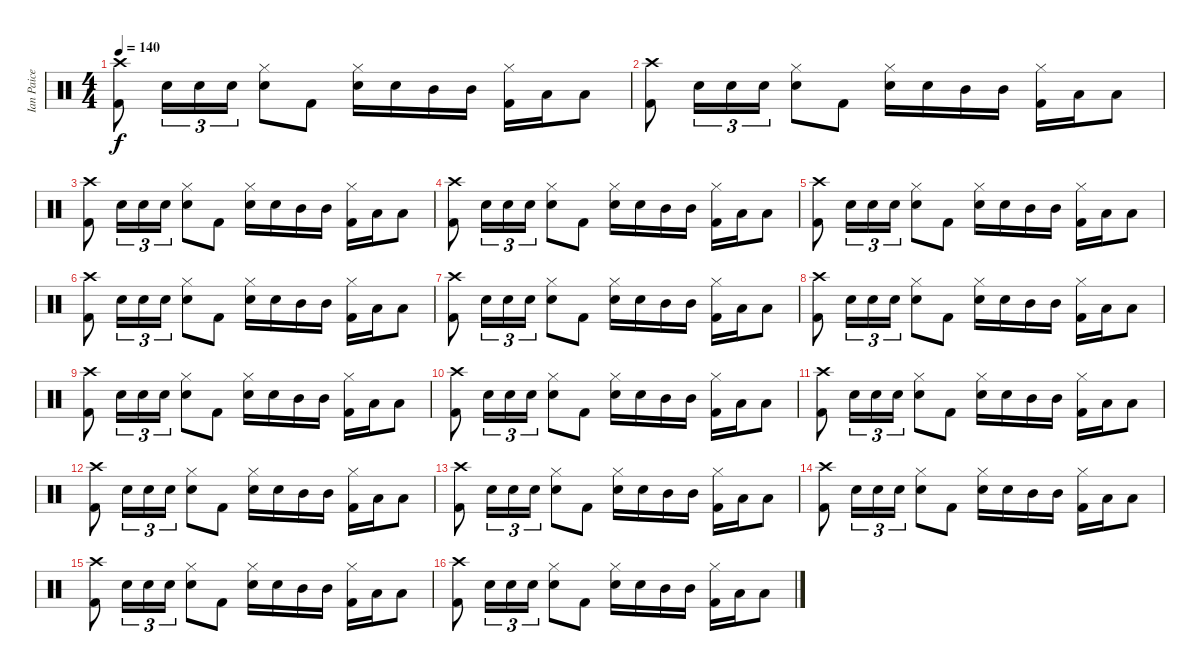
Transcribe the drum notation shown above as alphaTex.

\track ("Ian Paice" "Ian Paice") {instrument percussion}
\staff {score}
\articulation defaults
\ts (4 4)
\tempo 140
\clef neutral
\ks c
("Crash high (hit)" "Kick (hit) 2").8{dy f} "Snare (hit) 2".16{tu (3 2)} "Snare (hit) 2".16{tu (3 2)} "Snare (hit) 2".16{tu (3 2)} ("Hi-Hat (closed)" "Snare (hit) 2").8 "Kick (hit) 2".8 ("Hi-Hat (closed)" "Snare (hit) 2").16 "Snare (hit) 2".16 "Mid Tom (hit)".16 "Mid Tom (hit)".16 ("Hi-Hat (closed)" "Kick (hit) 2").16 "Low Tom (hit)".16 "Low Tom (hit)".8 |
("Crash high (hit)" "Kick (hit) 2").8 "Snare (hit) 2".16{tu (3 2)} "Snare (hit) 2".16{tu (3 2)} "Snare (hit) 2".16{tu (3 2)} ("Hi-Hat (closed)" "Snare (hit) 2").8 "Kick (hit) 2".8 ("Hi-Hat (closed)" "Snare (hit) 2").16 "Snare (hit) 2".16 "Mid Tom (hit)".16 "Mid Tom (hit)".16 ("Hi-Hat (closed)" "Kick (hit) 2").16 "Low Tom (hit)".16 "Low Tom (hit)".8 |
("Crash high (hit)" "Kick (hit) 2").8 "Snare (hit) 2".16{tu (3 2)} "Snare (hit) 2".16{tu (3 2)} "Snare (hit) 2".16{tu (3 2)} ("Hi-Hat (closed)" "Snare (hit) 2").8 "Kick (hit) 2".8 ("Hi-Hat (closed)" "Snare (hit) 2").16 "Snare (hit) 2".16 "Mid Tom (hit)".16 "Mid Tom (hit)".16 ("Hi-Hat (closed)" "Kick (hit) 2").16 "Low Tom (hit)".16 "Low Tom (hit)".8 |
("Crash high (hit)" "Kick (hit) 2").8 "Snare (hit) 2".16{tu (3 2)} "Snare (hit) 2".16{tu (3 2)} "Snare (hit) 2".16{tu (3 2)} ("Hi-Hat (closed)" "Snare (hit) 2").8 "Kick (hit) 2".8 ("Hi-Hat (closed)" "Snare (hit) 2").16 "Snare (hit) 2".16 "Mid Tom (hit)".16 "Mid Tom (hit)".16 ("Hi-Hat (closed)" "Kick (hit) 2").16 "Low Tom (hit)".16 "Low Tom (hit)".8 |
("Crash high (hit)" "Kick (hit) 2").8 "Snare (hit) 2".16{tu (3 2)} "Snare (hit) 2".16{tu (3 2)} "Snare (hit) 2".16{tu (3 2)} ("Hi-Hat (closed)" "Snare (hit) 2").8 "Kick (hit) 2".8 ("Hi-Hat (closed)" "Snare (hit) 2").16 "Snare (hit) 2".16 "Mid Tom (hit)".16 "Mid Tom (hit)".16 ("Hi-Hat (closed)" "Kick (hit) 2").16 "Low Tom (hit)".16 "Low Tom (hit)".8 |
("Crash high (hit)" "Kick (hit) 2").8 "Snare (hit) 2".16{tu (3 2)} "Snare (hit) 2".16{tu (3 2)} "Snare (hit) 2".16{tu (3 2)} ("Hi-Hat (closed)" "Snare (hit) 2").8 "Kick (hit) 2".8 ("Hi-Hat (closed)" "Snare (hit) 2").16 "Snare (hit) 2".16 "Mid Tom (hit)".16 "Mid Tom (hit)".16 ("Hi-Hat (closed)" "Kick (hit) 2").16 "Low Tom (hit)".16 "Low Tom (hit)".8 |
("Crash high (hit)" "Kick (hit) 2").8 "Snare (hit) 2".16{tu (3 2)} "Snare (hit) 2".16{tu (3 2)} "Snare (hit) 2".16{tu (3 2)} ("Hi-Hat (closed)" "Snare (hit) 2").8 "Kick (hit) 2".8 ("Hi-Hat (closed)" "Snare (hit) 2").16 "Snare (hit) 2".16 "Mid Tom (hit)".16 "Mid Tom (hit)".16 ("Hi-Hat (closed)" "Kick (hit) 2").16 "Low Tom (hit)".16 "Low Tom (hit)".8 |
("Crash high (hit)" "Kick (hit) 2").8 "Snare (hit) 2".16{tu (3 2)} "Snare (hit) 2".16{tu (3 2)} "Snare (hit) 2".16{tu (3 2)} ("Hi-Hat (closed)" "Snare (hit) 2").8 "Kick (hit) 2".8 ("Hi-Hat (closed)" "Snare (hit) 2").16 "Snare (hit) 2".16 "Mid Tom (hit)".16 "Mid Tom (hit)".16 ("Hi-Hat (closed)" "Kick (hit) 2").16 "Low Tom (hit)".16 "Low Tom (hit)".8 |
("Crash high (hit)" "Kick (hit) 2").8 "Snare (hit) 2".16{tu (3 2)} "Snare (hit) 2".16{tu (3 2)} "Snare (hit) 2".16{tu (3 2)} ("Hi-Hat (closed)" "Snare (hit) 2").8 "Kick (hit) 2".8 ("Hi-Hat (closed)" "Snare (hit) 2").16 "Snare (hit) 2".16 "Mid Tom (hit)".16 "Mid Tom (hit)".16 ("Hi-Hat (closed)" "Kick (hit) 2").16 "Low Tom (hit)".16 "Low Tom (hit)".8 |
("Crash high (hit)" "Kick (hit) 2").8 "Snare (hit) 2".16{tu (3 2)} "Snare (hit) 2".16{tu (3 2)} "Snare (hit) 2".16{tu (3 2)} ("Hi-Hat (closed)" "Snare (hit) 2").8 "Kick (hit) 2".8 ("Hi-Hat (closed)" "Snare (hit) 2").16 "Snare (hit) 2".16 "Mid Tom (hit)".16 "Mid Tom (hit)".16 ("Hi-Hat (closed)" "Kick (hit) 2").16 "Low Tom (hit)".16 "Low Tom (hit)".8 |
("Crash high (hit)" "Kick (hit) 2").8 "Snare (hit) 2".16{tu (3 2)} "Snare (hit) 2".16{tu (3 2)} "Snare (hit) 2".16{tu (3 2)} ("Hi-Hat (closed)" "Snare (hit) 2").8 "Kick (hit) 2".8 ("Hi-Hat (closed)" "Snare (hit) 2").16 "Snare (hit) 2".16 "Mid Tom (hit)".16 "Mid Tom (hit)".16 ("Hi-Hat (closed)" "Kick (hit) 2").16 "Low Tom (hit)".16 "Low Tom (hit)".8 |
("Crash high (hit)" "Kick (hit) 2").8 "Snare (hit) 2".16{tu (3 2)} "Snare (hit) 2".16{tu (3 2)} "Snare (hit) 2".16{tu (3 2)} ("Hi-Hat (closed)" "Snare (hit) 2").8 "Kick (hit) 2".8 ("Hi-Hat (closed)" "Snare (hit) 2").16 "Snare (hit) 2".16 "Mid Tom (hit)".16 "Mid Tom (hit)".16 ("Hi-Hat (closed)" "Kick (hit) 2").16 "Low Tom (hit)".16 "Low Tom (hit)".8 |
("Crash high (hit)" "Kick (hit) 2").8 "Snare (hit) 2".16{tu (3 2)} "Snare (hit) 2".16{tu (3 2)} "Snare (hit) 2".16{tu (3 2)} ("Hi-Hat (closed)" "Snare (hit) 2").8 "Kick (hit) 2".8 ("Hi-Hat (closed)" "Snare (hit) 2").16 "Snare (hit) 2".16 "Mid Tom (hit)".16 "Mid Tom (hit)".16 ("Hi-Hat (closed)" "Kick (hit) 2").16 "Low Tom (hit)".16 "Low Tom (hit)".8 |
("Crash high (hit)" "Kick (hit) 2").8 "Snare (hit) 2".16{tu (3 2)} "Snare (hit) 2".16{tu (3 2)} "Snare (hit) 2".16{tu (3 2)} ("Hi-Hat (closed)" "Snare (hit) 2").8 "Kick (hit) 2".8 ("Hi-Hat (closed)" "Snare (hit) 2").16 "Snare (hit) 2".16 "Mid Tom (hit)".16 "Mid Tom (hit)".16 ("Hi-Hat (closed)" "Kick (hit) 2").16 "Low Tom (hit)".16 "Low Tom (hit)".8 |
("Crash high (hit)" "Kick (hit) 2").8 "Snare (hit) 2".16{tu (3 2)} "Snare (hit) 2".16{tu (3 2)} "Snare (hit) 2".16{tu (3 2)} ("Hi-Hat (closed)" "Snare (hit) 2").8 "Kick (hit) 2".8 ("Hi-Hat (closed)" "Snare (hit) 2").16 "Snare (hit) 2".16 "Mid Tom (hit)".16 "Mid Tom (hit)".16 ("Hi-Hat (closed)" "Kick (hit) 2").16 "Low Tom (hit)".16 "Low Tom (hit)".8 |
("Crash high (hit)" "Kick (hit) 2").8 "Snare (hit) 2".16{tu (3 2)} "Snare (hit) 2".16{tu (3 2)} "Snare (hit) 2".16{tu (3 2)} ("Hi-Hat (closed)" "Snare (hit) 2").8 "Kick (hit) 2".8 ("Hi-Hat (closed)" "Snare (hit) 2").16 "Snare (hit) 2".16 "Mid Tom (hit)".16 "Mid Tom (hit)".16 ("Hi-Hat (closed)" "Kick (hit) 2").16 "Low Tom (hit)".16 "Low Tom (hit)".8
